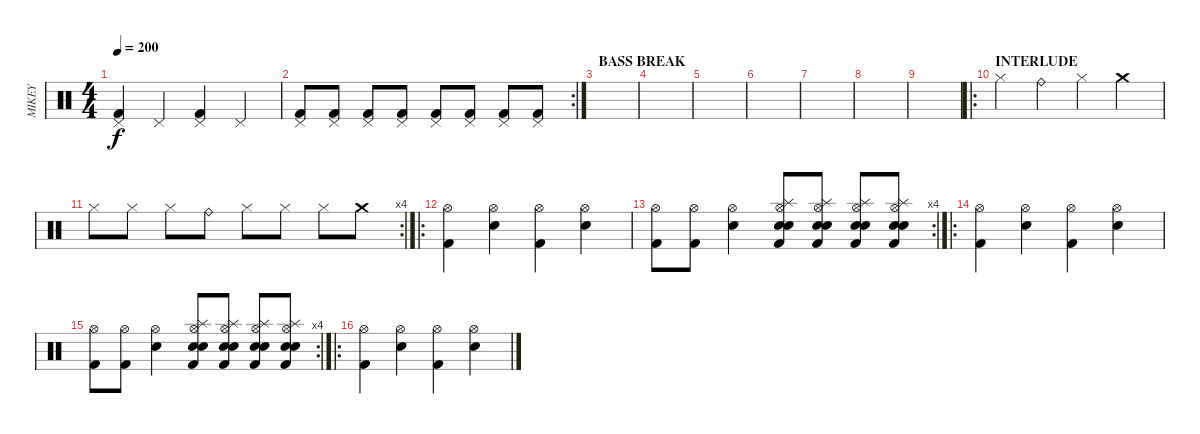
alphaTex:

\track ("MIKEY" "MIKEY") {instrument percussion}
\staff {score}
\articulation defaults
\ts (4 4)
\tempo 200
\clef neutral
\ks c
("Kick (hit) 2" "Pedal Hi-Hat (hit)").4{dy f} "Pedal Hi-Hat (hit)".4 ("Kick (hit) 2" "Pedal Hi-Hat (hit)").4 "Pedal Hi-Hat (hit)".4 |
\rc 2
("Kick (hit) 2" "Pedal Hi-Hat (hit)").8 ("Kick (hit) 2" "Pedal Hi-Hat (hit)").8 ("Kick (hit) 2" "Pedal Hi-Hat (hit)").8 ("Kick (hit) 2" "Pedal Hi-Hat (hit)").8 ("Kick (hit) 2" "Pedal Hi-Hat (hit)").8 ("Kick (hit) 2" "Pedal Hi-Hat (hit)").8 ("Kick (hit) 2" "Pedal Hi-Hat (hit)").8 ("Kick (hit) 2" "Pedal Hi-Hat (hit)").8 |
\section ("" "BASS BREAK")
|
|
|
|
|
|
|
\ro
\section ("" "INTERLUDE")
"Hi-Hat (closed)".4 "Ride (bell)".4 "Hi-Hat (closed)".4 "Crash medium (hit)".4 |
\rc 4 "Hi-Hat (closed)".8 "Hi-Hat (closed)".8 "Hi-Hat (closed)".8 "Ride (bell)".8 "Hi-Hat (closed)".8 "Hi-Hat (closed)".8 "Hi-Hat (closed)".8 "Crash medium (hit)".8
|
\ro
("Hi-Hat (open)" "Kick (hit) 2").4 ("Hi-Hat (open)" "Snare (hit) 2").4 ("Hi-Hat (open)" "Kick (hit) 2").4 ("Hi-Hat (open)" "Snare (hit) 2").4 |
\rc 4
("Hi-Hat (open)" "Kick (hit) 2").8 ("Hi-Hat (open)" "Kick (hit) 2").8 ("Hi-Hat (open)" "Snare (hit) 2").4 ("Splash (hit)" "Electric Snare (hit)" "Snare (hit) 2" "Hi-Hat (open)" "Kick (hit) 2").8 ("Splash (hit)" "Electric Snare (hit)" "Snare (hit) 2" "Hi-Hat (open)" "Kick (hit) 2").8 ("Splash (hit)" "Electric Snare (hit)" "Snare (hit) 2" "Hi-Hat (open)" "Kick (hit) 2").8 ("Splash (hit)" "Electric Snare (hit)" "Snare (hit) 2" "Hi-Hat (open)" "Kick (hit) 2").8 |
\ro
("Hi-Hat (open)" "Kick (hit) 2").4 ("Hi-Hat (open)" "Snare (hit) 2").4 ("Hi-Hat (open)" "Kick (hit) 2").4 ("Hi-Hat (open)" "Snare (hit) 2").4 |
\rc 4
("Hi-Hat (open)" "Kick (hit) 2").8 ("Hi-Hat (open)" "Kick (hit) 2").8 ("Hi-Hat (open)" "Snare (hit) 2").4 ("Splash (hit)" "Electric Snare (hit)" "Snare (hit) 2" "Hi-Hat (open)" "Kick (hit) 2").8 ("Splash (hit)" "Electric Snare (hit)" "Snare (hit) 2" "Hi-Hat (open)" "Kick (hit) 2").8 ("Splash (hit)" "Electric Snare (hit)" "Snare (hit) 2" "Hi-Hat (open)" "Kick (hit) 2").8 ("Splash (hit)" "Electric Snare (hit)" "Snare (hit) 2" "Hi-Hat (open)" "Kick (hit) 2").8 |
\ro
("Hi-Hat (open)" "Kick (hit) 2").4 ("Hi-Hat (open)" "Snare (hit) 2").4 ("Hi-Hat (open)" "Kick (hit) 2").4 ("Hi-Hat (open)" "Snare (hit) 2").4
